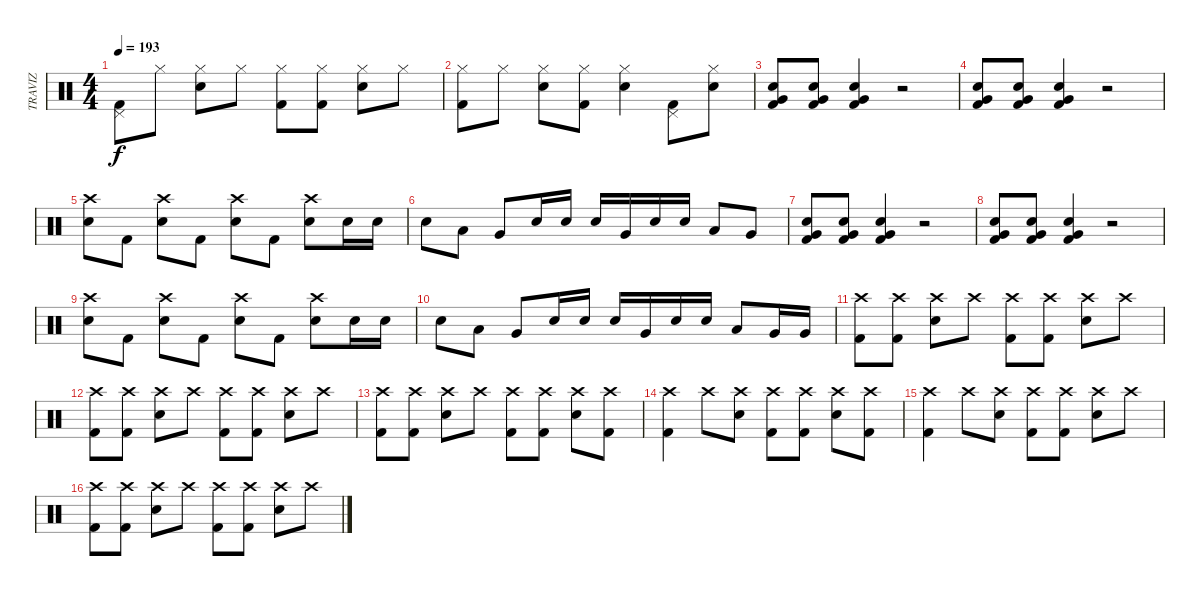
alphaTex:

\track ("TRAVIZ" "TRAVIZ") {instrument percussion}
\staff {score}
\articulation defaults
\ts (4 4)
\tempo 193
\clef neutral
\ks c
("Kick (hit) 2" "Pedal Hi-Hat (hit)").8{dy f} "Hi-Hat (closed)".8 ("Hi-Hat (closed)" "Snare (hit) 2").8 "Hi-Hat (closed)".8 ("Hi-Hat (closed)" "Kick (hit) 2").8 ("Hi-Hat (closed)" "Kick (hit) 2").8 ("Hi-Hat (closed)" "Snare (hit) 2").8 "Hi-Hat (closed)".8 |
("Hi-Hat (closed)" "Kick (hit) 2").8 "Hi-Hat (closed)".8 ("Hi-Hat (closed)" "Snare (hit) 2").8 ("Hi-Hat (closed)" "Kick (hit) 2").8 ("Hi-Hat (closed)" "Snare (hit) 2").4 ("Kick (hit) 2" "Pedal Hi-Hat (hit)").8 ("Hi-Hat (closed)" "Snare (hit) 2").8 |
("Snare (hit) 2" "Very Low Tom (hit)" "Kick (hit) 2").8 ("Snare (hit) 2" "Very Low Tom (hit)" "Kick (hit) 2").8 ("Snare (hit) 2" "Very Low Tom (hit)" "Kick (hit) 2").4 r.2 |
("Snare (hit) 2" "Very Low Tom (hit)" "Kick (hit) 2").8 ("Snare (hit) 2" "Very Low Tom (hit)" "Kick (hit) 2").8 ("Snare (hit) 2" "Very Low Tom (hit)" "Kick (hit) 2").4 r.2 |
("Crash high (hit)" "Snare (hit) 2").8 "Kick (hit) 2".8 ("Crash high (hit)" "Snare (hit) 2").8 "Kick (hit) 2".8 ("Crash high (hit)" "Snare (hit) 2").8 "Kick (hit) 2".8 ("Crash high (hit)" "Snare (hit) 2").8 "Snare (hit) 2".16 "Snare (hit) 2".16 |
"Snare (hit) 2".8 "Low Tom (hit)".8 "Very Low Tom (hit)".8 "Snare (hit) 2".16 "Snare (hit) 2".16 "Snare (hit) 2".16 "Very Low Tom (hit)".16 "Snare (hit) 2".16 "Snare (hit) 2".16 "Low Tom (hit)".8 "Very Low Tom (hit)".8 |
("Snare (hit) 2" "Very Low Tom (hit)" "Kick (hit) 2").8 ("Snare (hit) 2" "Very Low Tom (hit)" "Kick (hit) 2").8 ("Snare (hit) 2" "Very Low Tom (hit)" "Kick (hit) 2").4 r.2 |
("Snare (hit) 2" "Very Low Tom (hit)" "Kick (hit) 2").8 ("Snare (hit) 2" "Very Low Tom (hit)" "Kick (hit) 2").8 ("Snare (hit) 2" "Very Low Tom (hit)" "Kick (hit) 2").4 r.2 |
("Crash high (hit)" "Snare (hit) 2").8 "Kick (hit) 2".8 ("Crash high (hit)" "Snare (hit) 2").8 "Kick (hit) 2".8 ("Crash high (hit)" "Snare (hit) 2").8 "Kick (hit) 2".8 ("Crash high (hit)" "Snare (hit) 2").8 "Snare (hit) 2".16 "Snare (hit) 2".16 |
"Snare (hit) 2".8 "Low Tom (hit)".8 "Very Low Tom (hit)".8 "Snare (hit) 2".16 "Snare (hit) 2".16 "Snare (hit) 2".16 "Very Low Tom (hit)".16 "Snare (hit) 2".16 "Snare (hit) 2".16 "Low Tom (hit)".8 "Very Low Tom (hit)".16 "Very Low Tom (hit)".16 |
("Crash high (hit)" "Kick (hit) 2").8 ("Crash high (hit)" "Kick (hit) 2").8 ("Crash high (hit)" "Snare (hit) 2").8 "Crash high (hit)".8 ("Crash high (hit)" "Kick (hit) 2").8 ("Crash high (hit)" "Kick (hit) 2").8 ("Crash high (hit)" "Snare (hit) 2").8 "Crash high (hit)".8 |
("Crash high (hit)" "Kick (hit) 2").8 ("Crash high (hit)" "Kick (hit) 2").8 ("Crash high (hit)" "Snare (hit) 2").8 "Crash high (hit)".8 ("Crash high (hit)" "Kick (hit) 2").8 ("Crash high (hit)" "Kick (hit) 2").8 ("Crash high (hit)" "Snare (hit) 2").8 "Crash high (hit)".8 |
("Crash high (hit)" "Kick (hit) 2").8 ("Crash high (hit)" "Kick (hit) 2").8 ("Crash high (hit)" "Snare (hit) 2").8 "Crash high (hit)".8 ("Crash high (hit)" "Kick (hit) 2").8 ("Crash high (hit)" "Kick (hit) 2").8 ("Crash high (hit)" "Snare (hit) 2").8 ("Crash high (hit)" "Kick (hit) 2").8 |
("Crash high (hit)" "Kick (hit) 2").4 "Crash high (hit)".8 ("Crash high (hit)" "Snare (hit) 2").8 ("Crash high (hit)" "Kick (hit) 2").8 ("Crash high (hit)" "Kick (hit) 2").8 ("Crash high (hit)" "Snare (hit) 2").8 ("Crash high (hit)" "Kick (hit) 2").8 |
("Crash high (hit)" "Kick (hit) 2").4 "Crash high (hit)".8 ("Crash high (hit)" "Snare (hit) 2").8 ("Crash high (hit)" "Kick (hit) 2").8 ("Crash high (hit)" "Kick (hit) 2").8 ("Crash high (hit)" "Snare (hit) 2").8 "Crash high (hit)".8 |
("Crash high (hit)" "Kick (hit) 2").8 ("Crash high (hit)" "Kick (hit) 2").8 ("Crash high (hit)" "Snare (hit) 2").8 "Crash high (hit)".8 ("Crash high (hit)" "Kick (hit) 2").8 ("Crash high (hit)" "Kick (hit) 2").8 ("Crash high (hit)" "Snare (hit) 2").8 "Crash high (hit)".8
